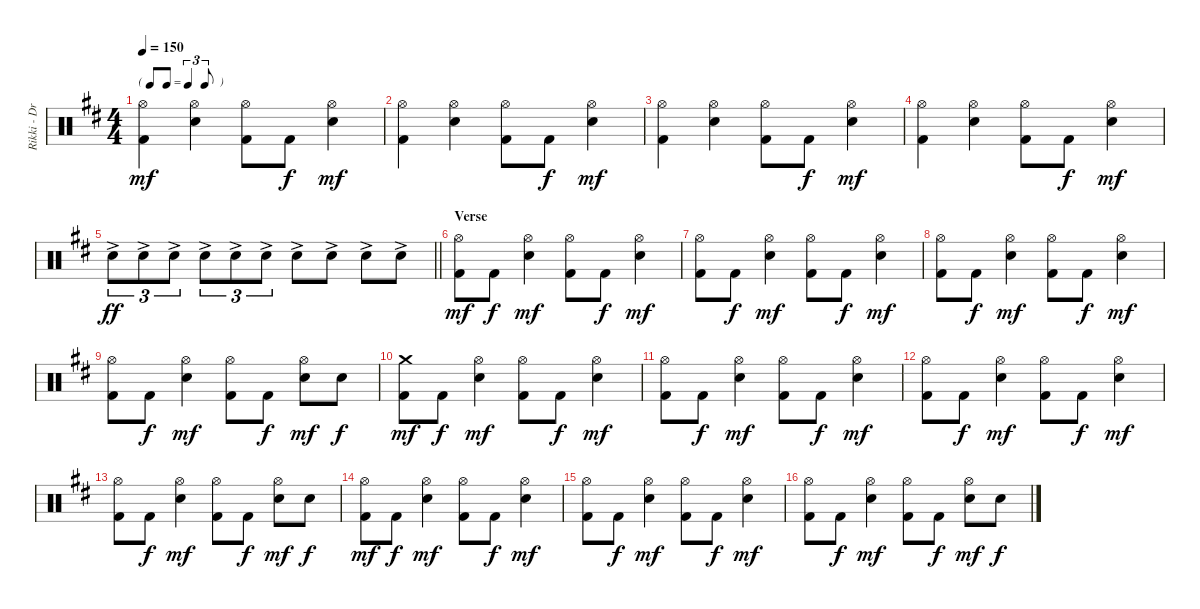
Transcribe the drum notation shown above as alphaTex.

\track ("Rikki - Drums" "Rikki - Dr") {instrument percussion}
\staff {score}
\articulation defaults
\ts (4 4)
\tf triplet8th
\tempo 150
\clef neutral
\ks d
("Hi-Hat (open)" "Kick (hit) 2").4{dy mf} ("Hi-Hat (open)" "Snare (hit) 2").4 ("Hi-Hat (open)" "Kick (hit) 2").8 "Kick (hit) 2".8{dy f} ("Hi-Hat (open)" "Snare (hit) 2").4{dy mf} |
("Hi-Hat (open)" "Kick (hit) 2").4 ("Hi-Hat (open)" "Snare (hit) 2").4 ("Hi-Hat (open)" "Kick (hit) 2").8 "Kick (hit) 2".8{dy f} ("Hi-Hat (open)" "Snare (hit) 2").4{dy mf} |
("Hi-Hat (open)" "Kick (hit) 2").4 ("Hi-Hat (open)" "Snare (hit) 2").4 ("Hi-Hat (open)" "Kick (hit) 2").8 "Kick (hit) 2".8{dy f} ("Hi-Hat (open)" "Snare (hit) 2").4{dy mf} |
("Hi-Hat (open)" "Kick (hit) 2").4 ("Hi-Hat (open)" "Snare (hit) 2").4 ("Hi-Hat (open)" "Kick (hit) 2").8 "Kick (hit) 2".8{dy f} ("Hi-Hat (open)" "Snare (hit) 2").4{dy mf} |
\barLineRight lightlight "Snare (hit) 2"{ac}.8{tu (3 2) dy ff} "Snare (hit) 2"{ac}.8{tu (3 2)} "Snare (hit) 2"{ac}.8{tu (3 2)} "Snare (hit) 2"{ac}.8{tu (3 2)} "Snare (hit) 2"{ac}.8{tu (3 2)} "Snare (hit) 2"{ac}.8{tu (3 2)} "Snare (hit) 2"{ac}.8 "Snare (hit) 2"{ac}.8 "Snare (hit) 2"{ac}.8 "Snare (hit) 2"{ac}.8
|
\section ("" "Verse")
("Hi-Hat (open)" "Kick (hit) 2").8{dy mf} "Kick (hit) 2".8{dy f} ("Hi-Hat (open)" "Snare (hit) 2").4{dy mf} ("Hi-Hat (open)" "Kick (hit) 2").8 "Kick (hit) 2".8{dy f} ("Hi-Hat (open)" "Snare (hit) 2").4{dy mf} |
("Hi-Hat (open)" "Kick (hit) 2").8 "Kick (hit) 2".8{dy f} ("Hi-Hat (open)" "Snare (hit) 2").4{dy mf} ("Hi-Hat (open)" "Kick (hit) 2").8 "Kick (hit) 2".8{dy f} ("Hi-Hat (open)" "Snare (hit) 2").4{dy mf} |
("Hi-Hat (open)" "Kick (hit) 2").8 "Kick (hit) 2".8{dy f} ("Hi-Hat (open)" "Snare (hit) 2").4{dy mf} ("Hi-Hat (open)" "Kick (hit) 2").8 "Kick (hit) 2".8{dy f} ("Hi-Hat (open)" "Snare (hit) 2").4{dy mf} |
("Hi-Hat (open)" "Kick (hit) 2").8 "Kick (hit) 2".8{dy f} ("Hi-Hat (open)" "Snare (hit) 2").4{dy mf} ("Hi-Hat (open)" "Kick (hit) 2").8 "Kick (hit) 2".8{dy f} ("Hi-Hat (open)" "Snare (hit) 2").8{dy mf} "Snare (hit) 2".8{dy f} |
("Crash medium (hit)" "Kick (hit) 2").8{dy mf} "Kick (hit) 2".8{dy f} ("Hi-Hat (open)" "Snare (hit) 2").4{dy mf} ("Hi-Hat (open)" "Kick (hit) 2").8 "Kick (hit) 2".8{dy f} ("Hi-Hat (open)" "Snare (hit) 2").4{dy mf} |
("Hi-Hat (open)" "Kick (hit) 2").8 "Kick (hit) 2".8{dy f} ("Hi-Hat (open)" "Snare (hit) 2").4{dy mf} ("Hi-Hat (open)" "Kick (hit) 2").8 "Kick (hit) 2".8{dy f} ("Hi-Hat (open)" "Snare (hit) 2").4{dy mf} |
("Hi-Hat (open)" "Kick (hit) 2").8 "Kick (hit) 2".8{dy f} ("Hi-Hat (open)" "Snare (hit) 2").4{dy mf} ("Hi-Hat (open)" "Kick (hit) 2").8 "Kick (hit) 2".8{dy f} ("Hi-Hat (open)" "Snare (hit) 2").4{dy mf} |
("Hi-Hat (open)" "Kick (hit) 2").8 "Kick (hit) 2".8{dy f} ("Hi-Hat (open)" "Snare (hit) 2").4{dy mf} ("Hi-Hat (open)" "Kick (hit) 2").8 "Kick (hit) 2".8{dy f} ("Hi-Hat (open)" "Snare (hit) 2").8{dy mf} "Snare (hit) 2".8{dy f} |
("Hi-Hat (open)" "Kick (hit) 2").8{dy mf} "Kick (hit) 2".8{dy f} ("Hi-Hat (open)" "Snare (hit) 2").4{dy mf} ("Hi-Hat (open)" "Kick (hit) 2").8 "Kick (hit) 2".8{dy f} ("Hi-Hat (open)" "Snare (hit) 2").4{dy mf} |
("Hi-Hat (open)" "Kick (hit) 2").8 "Kick (hit) 2".8{dy f} ("Hi-Hat (open)" "Snare (hit) 2").4{dy mf} ("Hi-Hat (open)" "Kick (hit) 2").8 "Kick (hit) 2".8{dy f} ("Hi-Hat (open)" "Snare (hit) 2").4{dy mf} |
("Hi-Hat (open)" "Kick (hit) 2").8 "Kick (hit) 2".8{dy f} ("Hi-Hat (open)" "Snare (hit) 2").4{dy mf} ("Hi-Hat (open)" "Kick (hit) 2").8 "Kick (hit) 2".8{dy f} ("Hi-Hat (open)" "Snare (hit) 2").8{dy mf} "Snare (hit) 2".8{dy f}
